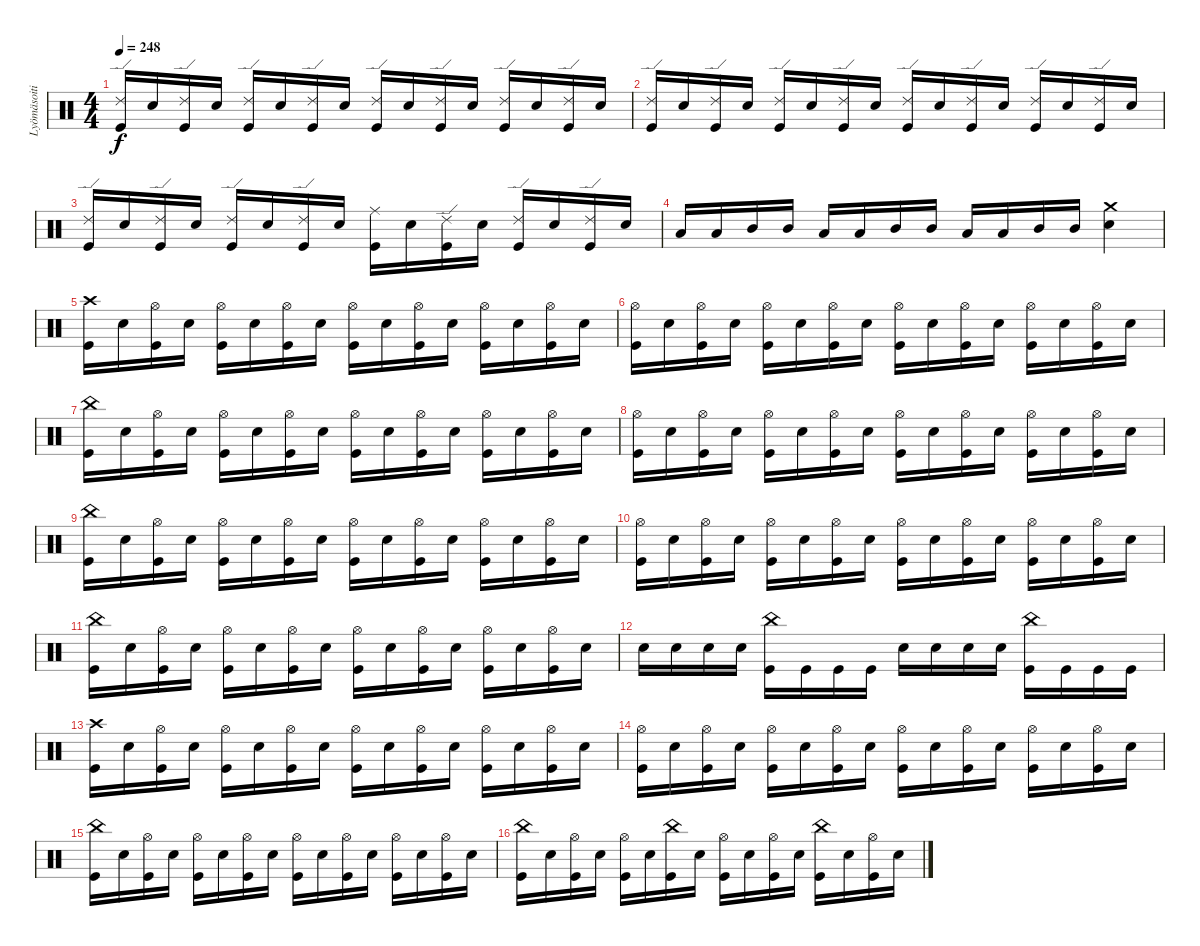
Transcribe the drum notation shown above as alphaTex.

\track ("Lyömäsoitin" "Lyömäsoiti") {instrument percussion}
\staff {score}
\articulation defaults
\ts (4 4)
\tempo 248
\clef neutral
\ks c
("Ride (edge) 2" "Kick (hit)").16{dy f} "Snare (hit) 2".16 ("Ride (edge) 2" "Kick (hit)").16 "Snare (hit) 2".16 ("Ride (edge) 2" "Kick (hit)").16 "Snare (hit) 2".16 ("Ride (edge) 2" "Kick (hit)").16 "Snare (hit) 2".16 ("Ride (edge) 2" "Kick (hit)").16 "Snare (hit) 2".16 ("Ride (edge) 2" "Kick (hit)").16 "Snare (hit) 2".16 ("Ride (edge) 2" "Kick (hit)").16 "Snare (hit) 2".16 ("Ride (edge) 2" "Kick (hit)").16 "Snare (hit) 2".16 |
("Ride (edge) 2" "Kick (hit)").16 "Snare (hit) 2".16 ("Ride (edge) 2" "Kick (hit)").16 "Snare (hit) 2".16 ("Ride (edge) 2" "Kick (hit)").16 "Snare (hit) 2".16 ("Ride (edge) 2" "Kick (hit)").16 "Snare (hit) 2".16 ("Ride (edge) 2" "Kick (hit)").16 "Snare (hit) 2".16 ("Ride (edge) 2" "Kick (hit)").16 "Snare (hit) 2".16 ("Ride (edge) 2" "Kick (hit)").16 "Snare (hit) 2".16 ("Ride (edge) 2" "Kick (hit)").16 "Snare (hit) 2".16 |
("Ride (edge) 2" "Kick (hit)").16 "Snare (hit) 2".16 ("Ride (edge) 2" "Kick (hit)").16 "Snare (hit) 2".16 ("Ride (edge) 2" "Kick (hit)").16 "Snare (hit) 2".16 ("Ride (edge) 2" "Kick (hit)").16 "Snare (hit) 2".16 ("Ride (middle)" "Kick (hit)").16 "Snare (hit) 2".16 ("Ride (edge) 2" "Kick (hit)").16 "Snare (hit) 2".16 ("Ride (edge) 2" "Kick (hit)").16 "Snare (hit) 2".16 ("Ride (edge) 2" "Kick (hit)").16 "Snare (hit) 2".16 |
"Low Tom (hit)".16 "Low Tom (hit)".16 "Mid Tom (hit)".16 "Mid Tom (hit)".16 "Low Tom (hit)".16 "Low Tom (hit)".16 "Mid Tom (hit)".16 "Mid Tom (hit)".16 "Low Tom (hit)".16 "Low Tom (hit)".16 "Mid Tom (hit)".16 "Mid Tom (hit)".16 ("Crash medium (hit)" "Snare (hit) 2").4 |
("Crash high (hit)" "Kick (hit)").16 "Snare (hit) 2".16 ("Hi-Hat (open)" "Kick (hit)").16 "Snare (hit) 2".16 ("Hi-Hat (open)" "Kick (hit)").16 "Snare (hit) 2".16 ("Hi-Hat (open)" "Kick (hit)").16 "Snare (hit) 2".16 ("Hi-Hat (open)" "Kick (hit)").16 "Snare (hit) 2".16 ("Hi-Hat (open)" "Kick (hit)").16 "Snare (hit) 2".16 ("Hi-Hat (open)" "Kick (hit)").16 "Snare (hit) 2".16 ("Hi-Hat (open)" "Kick (hit)").16 "Snare (hit) 2".16 |
("Hi-Hat (open)" "Kick (hit)").16 "Snare (hit) 2".16 ("Hi-Hat (open)" "Kick (hit)").16 "Snare (hit) 2".16 ("Hi-Hat (open)" "Kick (hit)").16 "Snare (hit) 2".16 ("Hi-Hat (open)" "Kick (hit)").16 "Snare (hit) 2".16 ("Hi-Hat (open)" "Kick (hit)").16 "Snare (hit) 2".16 ("Hi-Hat (open)" "Kick (hit)").16 "Snare (hit) 2".16 ("Hi-Hat (open)" "Kick (hit)").16 "Snare (hit) 2".16 ("Hi-Hat (open)" "Kick (hit)").16 "Snare (hit) 2".16 |
("China (hit)" "Kick (hit)").16 "Snare (hit) 2".16 ("Hi-Hat (open)" "Kick (hit)").16 "Snare (hit) 2".16 ("Hi-Hat (open)" "Kick (hit)").16 "Snare (hit) 2".16 ("Hi-Hat (open)" "Kick (hit)").16 "Snare (hit) 2".16 ("Hi-Hat (open)" "Kick (hit)").16 "Snare (hit) 2".16 ("Hi-Hat (open)" "Kick (hit)").16 "Snare (hit) 2".16 ("Hi-Hat (open)" "Kick (hit)").16 "Snare (hit) 2".16 ("Hi-Hat (open)" "Kick (hit)").16 "Snare (hit) 2".16 |
("Hi-Hat (open)" "Kick (hit)").16 "Snare (hit) 2".16 ("Hi-Hat (open)" "Kick (hit)").16 "Snare (hit) 2".16 ("Hi-Hat (open)" "Kick (hit)").16 "Snare (hit) 2".16 ("Hi-Hat (open)" "Kick (hit)").16 "Snare (hit) 2".16 ("Hi-Hat (open)" "Kick (hit)").16 "Snare (hit) 2".16 ("Hi-Hat (open)" "Kick (hit)").16 "Snare (hit) 2".16 ("Hi-Hat (open)" "Kick (hit)").16 "Snare (hit) 2".16 ("Hi-Hat (open)" "Kick (hit)").16 "Snare (hit) 2".16 |
("China (hit)" "Kick (hit)").16 "Snare (hit) 2".16 ("Hi-Hat (open)" "Kick (hit)").16 "Snare (hit) 2".16 ("Hi-Hat (open)" "Kick (hit)").16 "Snare (hit) 2".16 ("Hi-Hat (open)" "Kick (hit)").16 "Snare (hit) 2".16 ("Hi-Hat (open)" "Kick (hit)").16 "Snare (hit) 2".16 ("Hi-Hat (open)" "Kick (hit)").16 "Snare (hit) 2".16 ("Hi-Hat (open)" "Kick (hit)").16 "Snare (hit) 2".16 ("Hi-Hat (open)" "Kick (hit)").16 "Snare (hit) 2".16 |
("Hi-Hat (open)" "Kick (hit)").16 "Snare (hit) 2".16 ("Hi-Hat (open)" "Kick (hit)").16 "Snare (hit) 2".16 ("Hi-Hat (open)" "Kick (hit)").16 "Snare (hit) 2".16 ("Hi-Hat (open)" "Kick (hit)").16 "Snare (hit) 2".16 ("Hi-Hat (open)" "Kick (hit)").16 "Snare (hit) 2".16 ("Hi-Hat (open)" "Kick (hit)").16 "Snare (hit) 2".16 ("Hi-Hat (open)" "Kick (hit)").16 "Snare (hit) 2".16 ("Hi-Hat (open)" "Kick (hit)").16 "Snare (hit) 2".16 |
("China (hit)" "Kick (hit)").16 "Snare (hit) 2".16 ("Hi-Hat (open)" "Kick (hit)").16 "Snare (hit) 2".16 ("Hi-Hat (open)" "Kick (hit)").16 "Snare (hit) 2".16 ("Hi-Hat (open)" "Kick (hit)").16 "Snare (hit) 2".16 ("Hi-Hat (open)" "Kick (hit)").16 "Snare (hit) 2".16 ("Hi-Hat (open)" "Kick (hit)").16 "Snare (hit) 2".16 ("Hi-Hat (open)" "Kick (hit)").16 "Snare (hit) 2".16 ("Hi-Hat (open)" "Kick (hit)").16 "Snare (hit) 2".16 |
"Snare (hit) 2".16 "Snare (hit) 2".16 "Snare (hit) 2".16 "Snare (hit) 2".16 ("China (hit)" "Kick (hit)").16 "Kick (hit)".16 "Kick (hit)".16 "Kick (hit)".16 "Snare (hit) 2".16 "Snare (hit) 2".16 "Snare (hit) 2".16 "Snare (hit) 2".16 ("China (hit)" "Kick (hit)").16 "Kick (hit)".16 "Kick (hit)".16 "Kick (hit)".16 |
("Crash high (hit)" "Kick (hit)").16 "Snare (hit) 2".16 ("Hi-Hat (open)" "Kick (hit)").16 "Snare (hit) 2".16 ("Hi-Hat (open)" "Kick (hit)").16 "Snare (hit) 2".16 ("Hi-Hat (open)" "Kick (hit)").16 "Snare (hit) 2".16 ("Hi-Hat (open)" "Kick (hit)").16 "Snare (hit) 2".16 ("Hi-Hat (open)" "Kick (hit)").16 "Snare (hit) 2".16 ("Hi-Hat (open)" "Kick (hit)").16 "Snare (hit) 2".16 ("Hi-Hat (open)" "Kick (hit)").16 "Snare (hit) 2".16 |
("Hi-Hat (open)" "Kick (hit)").16 "Snare (hit) 2".16 ("Hi-Hat (open)" "Kick (hit)").16 "Snare (hit) 2".16 ("Hi-Hat (open)" "Kick (hit)").16 "Snare (hit) 2".16 ("Hi-Hat (open)" "Kick (hit)").16 "Snare (hit) 2".16 ("Hi-Hat (open)" "Kick (hit)").16 "Snare (hit) 2".16 ("Hi-Hat (open)" "Kick (hit)").16 "Snare (hit) 2".16 ("Hi-Hat (open)" "Kick (hit)").16 "Snare (hit) 2".16 ("Hi-Hat (open)" "Kick (hit)").16 "Snare (hit) 2".16 |
("China (hit)" "Kick (hit)").16 "Snare (hit) 2".16 ("Hi-Hat (open)" "Kick (hit)").16 "Snare (hit) 2".16 ("Hi-Hat (open)" "Kick (hit)").16 "Snare (hit) 2".16 ("Hi-Hat (open)" "Kick (hit)").16 "Snare (hit) 2".16 ("Hi-Hat (open)" "Kick (hit)").16 "Snare (hit) 2".16 ("Hi-Hat (open)" "Kick (hit)").16 "Snare (hit) 2".16 ("Hi-Hat (open)" "Kick (hit)").16 "Snare (hit) 2".16 ("Hi-Hat (open)" "Kick (hit)").16 "Snare (hit) 2".16 |
("China (hit)" "Kick (hit)").16 "Snare (hit) 2".16 ("Hi-Hat (open)" "Kick (hit)").16 "Snare (hit) 2".16 ("Hi-Hat (open)" "Kick (hit)").16 "Snare (hit) 2".16 ("China (hit)" "Kick (hit)").16 "Snare (hit) 2".16 ("Hi-Hat (open)" "Kick (hit)").16 "Snare (hit) 2".16 ("Hi-Hat (open)" "Kick (hit)").16 "Snare (hit) 2".16 ("China (hit)" "Kick (hit)").16 "Snare (hit) 2".16 ("Hi-Hat (open)" "Kick (hit)").16 "Snare (hit) 2".16
